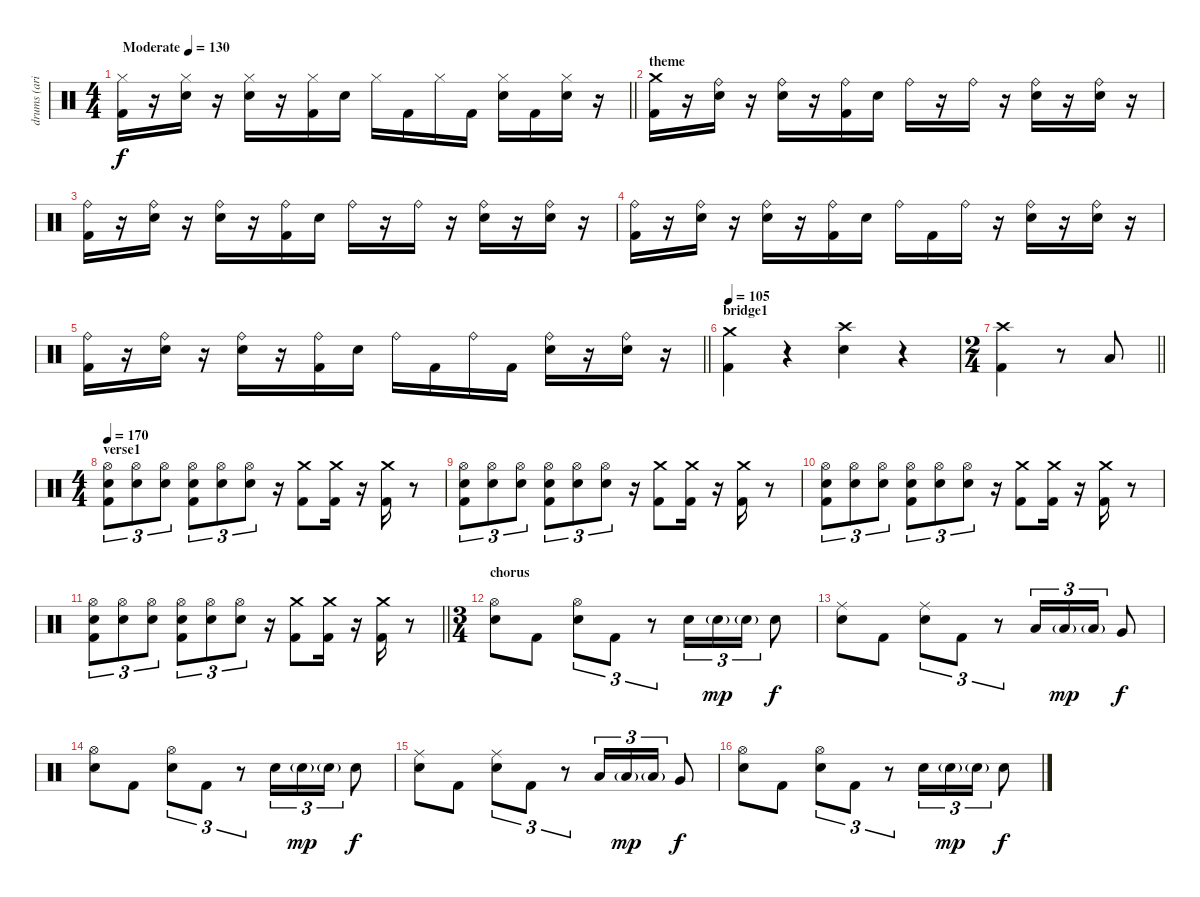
\track ("drums (ari)" "drums (ari") {instrument percussion}
\staff {score}
\articulation defaults
\ts (4 4)
\tempo (130 "Moderate")
\clef neutral
\barLineRight lightlight
\ks c
("Hi-Hat (closed)" "Kick (hit) 2").16{dy f} r.16 ("Hi-Hat (closed)" "Electric Snare (hit)").16 r.16 ("Hi-Hat (closed)" "Electric Snare (hit)").16 r.16 ("Hi-Hat (closed)" "Kick (hit) 2").16 "Electric Snare (hit)".16 "Hi-Hat (closed)".16 "Kick (hit) 2".16 "Hi-Hat (closed)".16 "Kick (hit) 2".16 ("Hi-Hat (closed)" "Electric Snare (hit)").16 "Kick (hit) 2".16 ("Hi-Hat (closed)" "Electric Snare (hit)").16 r.16 |
\section ("" "theme")
("Crash medium (hit)" "Kick (hit) 2").16 r.16 ("Ride (bell)" "Electric Snare (hit)").16 r.16 ("Ride (bell)" "Electric Snare (hit)").16 r.16 ("Ride (bell)" "Kick (hit) 2").16 "Electric Snare (hit)".16 "Ride (bell)".16 r.16 "Ride (bell)".16 r.16 ("Ride (bell)" "Electric Snare (hit)").16 r.16 ("Ride (bell)" "Electric Snare (hit)").16 r.16 |
("Ride (bell)" "Kick (hit) 2").16 r.16 ("Ride (bell)" "Electric Snare (hit)").16 r.16 ("Ride (bell)" "Electric Snare (hit)").16 r.16 ("Ride (bell)" "Kick (hit) 2").16 "Electric Snare (hit)".16 "Ride (bell)".16 r.16 "Ride (bell)".16 r.16 ("Ride (bell)" "Electric Snare (hit)").16 r.16 ("Ride (bell)" "Electric Snare (hit)").16 r.16 |
("Ride (bell)" "Kick (hit) 2").16 r.16 ("Ride (bell)" "Electric Snare (hit)").16 r.16 ("Ride (bell)" "Electric Snare (hit)").16 r.16 ("Ride (bell)" "Kick (hit) 2").16 "Electric Snare (hit)".16 "Ride (bell)".16 "Kick (hit) 2".16 "Ride (bell)".16 r.16 ("Ride (bell)" "Electric Snare (hit)").16 r.16 ("Ride (bell)" "Electric Snare (hit)").16 r.16 |
\barLineRight lightlight
("Ride (bell)" "Kick (hit) 2").16 r.16 ("Ride (bell)" "Electric Snare (hit)").16 r.16 ("Ride (bell)" "Electric Snare (hit)").16 r.16 ("Ride (bell)" "Kick (hit) 2").16 "Electric Snare (hit)".16 "Ride (bell)".16 "Kick (hit) 2".16 "Ride (bell)".16 "Kick (hit) 2".16 ("Ride (bell)" "Electric Snare (hit)").16 r.16 ("Ride (bell)" "Electric Snare (hit)").16 r.16 |
\section ("" "bridge1")
\tempo 105
("Crash medium (hit)" "Kick (hit) 2").4 r.4 ("Crash high (hit)" "Electric Snare (hit)").4 r.4 |
\ts (2 4)
\barLineRight lightlight
("Crash high (hit)" "Kick (hit) 2").4 r.8 "Low Tom (hit)".8 |
\ts (4 4)
\section ("" "verse1")
\tempo 170
("Hi-Hat (open)" "Electric Snare (hit)" "Kick (hit) 2").8{tu (3 2)} ("Hi-Hat (open)" "Electric Snare (hit)").8{tu (3 2)} ("Hi-Hat (open)" "Electric Snare (hit)").8{tu (3 2)} ("Hi-Hat (open)" "Electric Snare (hit)" "Kick (hit) 2").8{tu (3 2)} ("Hi-Hat (open)" "Electric Snare (hit)").8{tu (3 2)} ("Hi-Hat (open)" "Electric Snare (hit)").8{tu (3 2)} r.16 ("Crash medium (hit)" "Kick (hit) 2").8 ("Crash medium (hit)" "Kick (hit) 2").16 r.16 ("Crash medium (hit)" "Kick (hit) 2").16 r.8 |
("Hi-Hat (open)" "Electric Snare (hit)" "Kick (hit) 2").8{tu (3 2)} ("Hi-Hat (open)" "Electric Snare (hit)").8{tu (3 2)} ("Hi-Hat (open)" "Electric Snare (hit)").8{tu (3 2)} ("Hi-Hat (open)" "Electric Snare (hit)" "Kick (hit) 2").8{tu (3 2)} ("Hi-Hat (open)" "Electric Snare (hit)").8{tu (3 2)} ("Hi-Hat (open)" "Electric Snare (hit)").8{tu (3 2)} r.16 ("Crash medium (hit)" "Kick (hit) 2").8 ("Crash medium (hit)" "Kick (hit) 2").16 r.16 ("Crash medium (hit)" "Kick (hit) 2").16 r.8 |
("Hi-Hat (open)" "Electric Snare (hit)" "Kick (hit) 2").8{tu (3 2)} ("Hi-Hat (open)" "Electric Snare (hit)").8{tu (3 2)} ("Hi-Hat (open)" "Electric Snare (hit)").8{tu (3 2)} ("Hi-Hat (open)" "Electric Snare (hit)" "Kick (hit) 2").8{tu (3 2)} ("Hi-Hat (open)" "Electric Snare (hit)").8{tu (3 2)} ("Hi-Hat (open)" "Electric Snare (hit)").8{tu (3 2)} r.16 ("Crash medium (hit)" "Kick (hit) 2").8 ("Crash medium (hit)" "Kick (hit) 2").16 r.16 ("Crash medium (hit)" "Kick (hit) 2").16 r.8 |
\barLineRight lightlight
("Hi-Hat (open)" "Electric Snare (hit)" "Kick (hit) 2").8{tu (3 2)} ("Hi-Hat (open)" "Electric Snare (hit)").8{tu (3 2)} ("Hi-Hat (open)" "Electric Snare (hit)").8{tu (3 2)} ("Hi-Hat (open)" "Electric Snare (hit)" "Kick (hit) 2").8{tu (3 2)} ("Hi-Hat (open)" "Electric Snare (hit)").8{tu (3 2)} ("Hi-Hat (open)" "Electric Snare (hit)").8{tu (3 2)} r.16 ("Crash medium (hit)" "Kick (hit) 2").8 ("Crash medium (hit)" "Kick (hit) 2").16 r.16 ("Crash medium (hit)" "Kick (hit) 2").16 r.8 |
\ts (3 4)
\section ("" "chorus")
("Hi-Hat (open)" "Electric Snare (hit)").8 "Kick (hit) 2".8 ("Hi-Hat (open)" "Electric Snare (hit)").8{tu (3 2)} "Kick (hit) 2".8{tu (3 2)} r.8{tu (3 2)} "Electric Snare (hit)".16{tu (3 2)} "Electric Snare (hit)"{g}.16{tu (3 2) dy mp} "Electric Snare (hit)"{g}.16{tu (3 2)} "Electric Snare (hit)".8{dy f} |
("Ride (middle)" "Electric Snare (hit)").8 "Kick (hit) 2".8 ("Ride (middle)" "Electric Snare (hit)").8{tu (3 2)} "Kick (hit) 2".8{tu (3 2)} r.8{tu (3 2)} "Low Tom (hit)".16{tu (3 2)} "Low Tom (hit)"{g}.16{tu (3 2) dy mp} "Low Tom (hit)"{g}.16{tu (3 2)} "Very Low Tom (hit)".8{dy f} |
("Hi-Hat (open)" "Electric Snare (hit)").8 "Kick (hit) 2".8 ("Hi-Hat (open)" "Electric Snare (hit)").8{tu (3 2)} "Kick (hit) 2".8{tu (3 2)} r.8{tu (3 2)} "Electric Snare (hit)".16{tu (3 2)} "Electric Snare (hit)"{g}.16{tu (3 2) dy mp} "Electric Snare (hit)"{g}.16{tu (3 2)} "Electric Snare (hit)".8{dy f} |
("Ride (middle)" "Electric Snare (hit)").8 "Kick (hit) 2".8 ("Ride (middle)" "Electric Snare (hit)").8{tu (3 2)} "Kick (hit) 2".8{tu (3 2)} r.8{tu (3 2)} "Low Tom (hit)".16{tu (3 2)} "Low Tom (hit)"{g}.16{tu (3 2) dy mp} "Low Tom (hit)"{g}.16{tu (3 2)} "Very Low Tom (hit)".8{dy f} |
("Hi-Hat (open)" "Electric Snare (hit)").8 "Kick (hit) 2".8 ("Hi-Hat (open)" "Electric Snare (hit)").8{tu (3 2)} "Kick (hit) 2".8{tu (3 2)} r.8{tu (3 2)} "Electric Snare (hit)".16{tu (3 2)} "Electric Snare (hit)"{g}.16{tu (3 2) dy mp} "Electric Snare (hit)"{g}.16{tu (3 2)} "Electric Snare (hit)".8{dy f}
